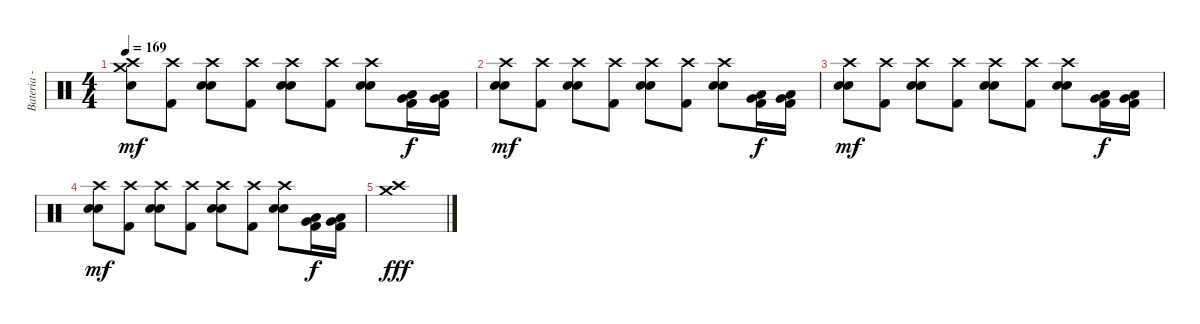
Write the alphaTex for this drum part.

\track ("Bateria - Larzon" "Bateria - ") {instrument percussion}
\staff {score}
\articulation defaults
\ts (4 4)
\tempo 169
\clef neutral
\ks c
("Electric Snare (hit)" "Crash medium (hit)" "Crash high (hit)").8{dy mf} ("Kick (hit) 2" "Crash high (hit)").8 ("Electric Snare (hit)" "Electric Snare (hit)" "Crash high (hit)").8 ("Kick (hit) 2" "Crash high (hit)").8 ("Electric Snare (hit)" "Electric Snare (hit)" "Crash high (hit)").8 ("Kick (hit) 2" "Crash high (hit)").8 ("Electric Snare (hit)" "Electric Snare (hit)" "Crash high (hit)").8 ("Very Low Tom (hit)" "Kick (hit) 2" "Low Floor Tom (hit)").16{dy f} ("Very Low Tom (hit)" "Kick (hit) 2" "Low Floor Tom (hit)").16 |
("Electric Snare (hit)" "Electric Snare (hit)" "Crash high (hit)").8{dy mf} ("Kick (hit) 2" "Crash high (hit)").8 ("Electric Snare (hit)" "Electric Snare (hit)" "Crash high (hit)").8 ("Kick (hit) 2" "Crash high (hit)").8 ("Electric Snare (hit)" "Electric Snare (hit)" "Crash high (hit)").8 ("Kick (hit) 2" "Crash high (hit)").8 ("Electric Snare (hit)" "Electric Snare (hit)" "Crash high (hit)").8 ("Very Low Tom (hit)" "Kick (hit) 2" "Low Floor Tom (hit)").16{dy f} ("Very Low Tom (hit)" "Kick (hit) 2" "Low Floor Tom (hit)").16 |
("Electric Snare (hit)" "Electric Snare (hit)" "Crash high (hit)").8{dy mf} ("Kick (hit) 2" "Crash high (hit)").8 ("Electric Snare (hit)" "Electric Snare (hit)" "Crash high (hit)").8 ("Kick (hit) 2" "Crash high (hit)").8 ("Electric Snare (hit)" "Electric Snare (hit)" "Crash high (hit)").8 ("Kick (hit) 2" "Crash high (hit)").8 ("Electric Snare (hit)" "Electric Snare (hit)" "Crash high (hit)").8 ("Very Low Tom (hit)" "Kick (hit) 2" "Low Floor Tom (hit)").16{dy f} ("Very Low Tom (hit)" "Kick (hit) 2" "Low Floor Tom (hit)").16 |
("Electric Snare (hit)" "Electric Snare (hit)" "Crash high (hit)").8{dy mf} ("Kick (hit) 2" "Crash high (hit)").8 ("Electric Snare (hit)" "Electric Snare (hit)" "Crash high (hit)").8 ("Kick (hit) 2" "Crash high (hit)").8 ("Electric Snare (hit)" "Electric Snare (hit)" "Crash high (hit)").8 ("Kick (hit) 2" "Crash high (hit)").8 ("Electric Snare (hit)" "Electric Snare (hit)" "Crash high (hit)").8 ("Very Low Tom (hit)" "Kick (hit) 2" "Low Floor Tom (hit)").16{dy f} ("Very Low Tom (hit)" "Kick (hit) 2" "Low Floor Tom (hit)").16 |
("Crash high (hit)" "Crash medium (hit)").1{dy fff}
